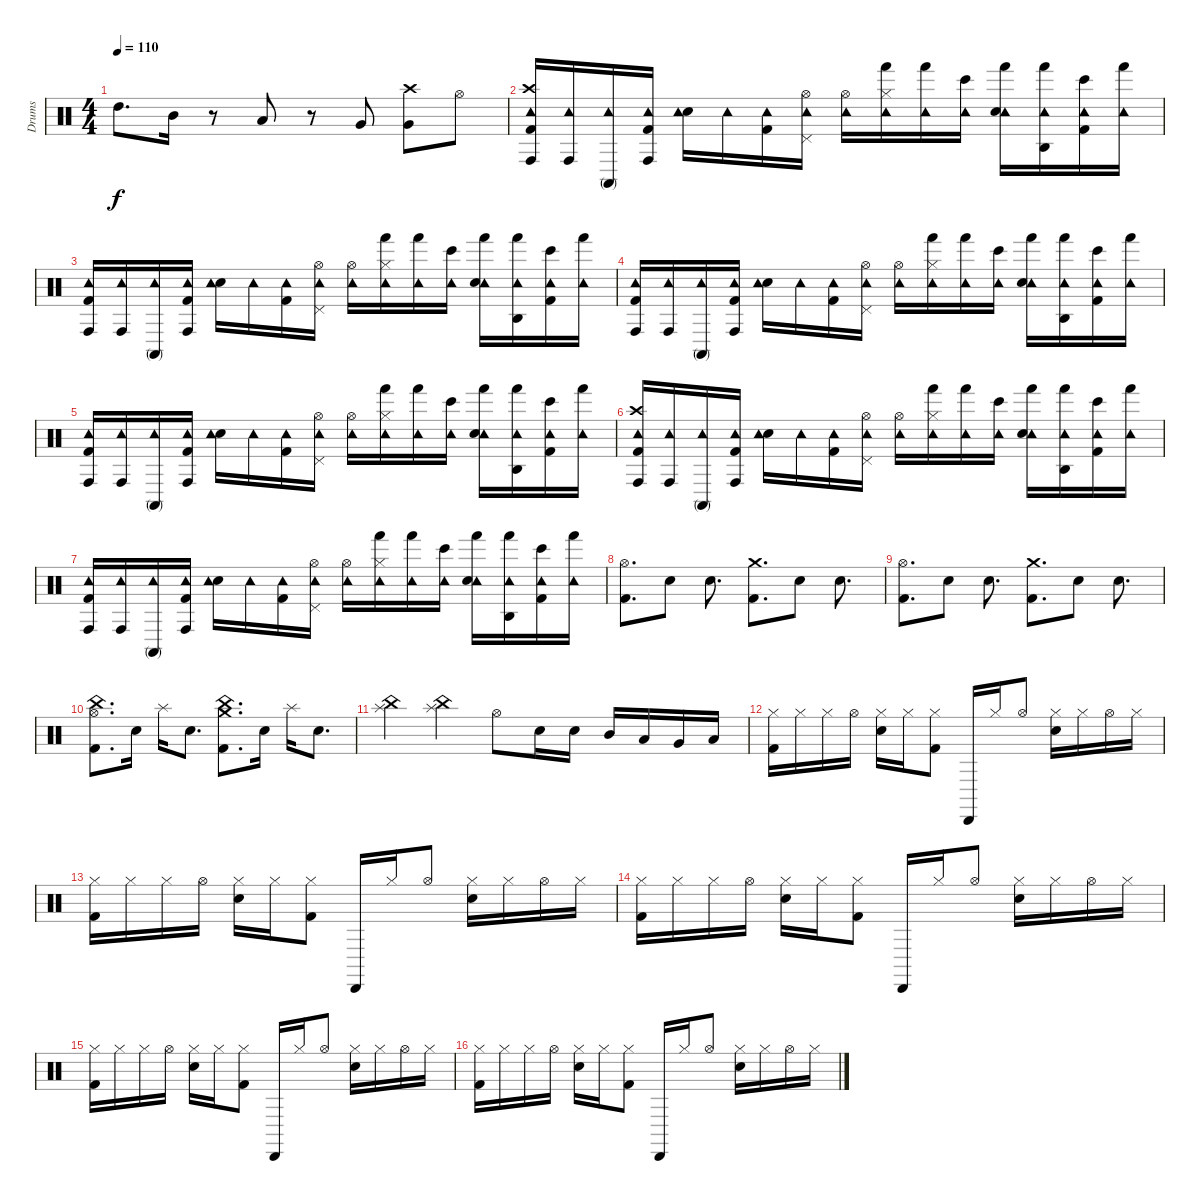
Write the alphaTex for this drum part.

\track ("Drums" "Drums") {instrument percussion}
\staff {score}
\articulation defaults
\ts (4 4)
\tempo 110
\clef neutral
\ks c "High Tom (hit)".8{d dy f} "Mid Tom (hit)".16
r.8 "Low Tom (hit)".8 r.8 "Very Low Tom (hit)".8 ("Very Low Tom (hit)" "Crash high (hit)").8 "Hi-Hat (open)".8 |
("Conga high (hit)" "Kick (hit) 2" "Crash high (hit)" "Tambourine (hit)").16 ("Conga high (hit)" "Tambourine (hit)").16 ("Conga high (mute)" "Tambourine (hit)").16 ("Conga high (hit)" "Kick (hit) 2" "Tambourine (hit)").16 ("Snare (hit) 2" "Tambourine (hit)").16 "Tambourine (hit)".16 ("Kick (hit) 2" "Tambourine (hit)").16 ("Tambourine (hit)" "Pedal Hi-Hat (hit)" "Hi-Hat (open)").16 ("Tambourine (hit)" "Hi-Hat (open)").16 ("Hand (hit)" "Tambourine (hit)" "Hi-Hat (closed)").16 ("Hand (hit)" "Tambourine (hit)").16 ("Bongo High (hit)" "Tambourine (hit)").16 ("Hand (hit)" "Tambourine (hit)" "Electric Snare (hit)").16 ("Hand (hit)" "Agogo high (hit)" "Tambourine (hit)").16 ("Bongo High (hit)" "Kick (hit) 2" "Tambourine (hit)").16 ("Hand (hit)" "Tambourine (hit)").16 |
("Conga high (hit)" "Kick (hit) 2" "Tambourine (hit)").16 ("Conga high (hit)" "Tambourine (hit)").16 ("Conga high (mute)" "Tambourine (hit)").16 ("Conga high (hit)" "Kick (hit) 2" "Tambourine (hit)").16 ("Snare (hit) 2" "Tambourine (hit)").16 "Tambourine (hit)".16 ("Kick (hit) 2" "Tambourine (hit)").16 ("Tambourine (hit)" "Pedal Hi-Hat (hit)" "Hi-Hat (open)").16 ("Tambourine (hit)" "Hi-Hat (open)").16 ("Hand (hit)" "Tambourine (hit)" "Hi-Hat (closed)").16 ("Hand (hit)" "Tambourine (hit)").16 ("Bongo High (hit)" "Tambourine (hit)").16 ("Hand (hit)" "Tambourine (hit)" "Electric Snare (hit)").16 ("Hand (hit)" "Agogo high (hit)" "Tambourine (hit)").16 ("Bongo High (hit)" "Kick (hit) 2" "Tambourine (hit)").16 ("Hand (hit)" "Tambourine (hit)").16 |
("Conga high (hit)" "Kick (hit) 2" "Tambourine (hit)").16 ("Conga high (hit)" "Tambourine (hit)").16 ("Conga high (mute)" "Tambourine (hit)").16 ("Conga high (hit)" "Kick (hit) 2" "Tambourine (hit)").16 ("Snare (hit) 2" "Tambourine (hit)").16 "Tambourine (hit)".16 ("Kick (hit) 2" "Tambourine (hit)").16 ("Tambourine (hit)" "Pedal Hi-Hat (hit)" "Hi-Hat (open)").16 ("Tambourine (hit)" "Hi-Hat (open)").16 ("Hand (hit)" "Tambourine (hit)" "Hi-Hat (closed)").16 ("Hand (hit)" "Tambourine (hit)").16 ("Bongo High (hit)" "Tambourine (hit)").16 ("Hand (hit)" "Tambourine (hit)" "Electric Snare (hit)").16 ("Hand (hit)" "Agogo high (hit)" "Tambourine (hit)").16 ("Bongo High (hit)" "Kick (hit) 2" "Tambourine (hit)").16 ("Hand (hit)" "Tambourine (hit)").16 |
("Conga high (hit)" "Kick (hit) 2" "Tambourine (hit)").16 ("Conga high (hit)" "Tambourine (hit)").16 ("Conga high (mute)" "Tambourine (hit)").16 ("Conga high (hit)" "Kick (hit) 2" "Tambourine (hit)").16 ("Snare (hit) 2" "Tambourine (hit)").16 "Tambourine (hit)".16 ("Kick (hit) 2" "Tambourine (hit)").16 ("Tambourine (hit)" "Pedal Hi-Hat (hit)" "Hi-Hat (open)").16 ("Tambourine (hit)" "Hi-Hat (open)").16 ("Hand (hit)" "Tambourine (hit)" "Hi-Hat (closed)").16 ("Hand (hit)" "Tambourine (hit)").16 ("Bongo High (hit)" "Tambourine (hit)").16 ("Hand (hit)" "Tambourine (hit)" "Electric Snare (hit)").16 ("Hand (hit)" "Agogo high (hit)" "Tambourine (hit)").16 ("Bongo High (hit)" "Kick (hit) 2" "Tambourine (hit)").16 ("Hand (hit)" "Tambourine (hit)").16 |
("Conga high (hit)" "Kick (hit) 2" "Crash high (hit)" "Tambourine (hit)").16 ("Conga high (hit)" "Tambourine (hit)").16 ("Conga high (mute)" "Tambourine (hit)").16 ("Conga high (hit)" "Kick (hit) 2" "Tambourine (hit)").16 ("Snare (hit) 2" "Tambourine (hit)").16 "Tambourine (hit)".16 ("Kick (hit) 2" "Tambourine (hit)").16 ("Tambourine (hit)" "Pedal Hi-Hat (hit)" "Hi-Hat (open)").16 ("Tambourine (hit)" "Hi-Hat (open)").16 ("Hand (hit)" "Tambourine (hit)" "Hi-Hat (closed)").16 ("Hand (hit)" "Tambourine (hit)").16 ("Bongo High (hit)" "Tambourine (hit)").16 ("Hand (hit)" "Tambourine (hit)" "Electric Snare (hit)").16 ("Hand (hit)" "Agogo high (hit)" "Tambourine (hit)").16 ("Bongo High (hit)" "Kick (hit) 2" "Tambourine (hit)").16 ("Hand (hit)" "Tambourine (hit)").16 |
("Conga high (hit)" "Kick (hit) 2" "Tambourine (hit)").16 ("Conga high (hit)" "Tambourine (hit)").16 ("Conga high (mute)" "Tambourine (hit)").16 ("Conga high (hit)" "Kick (hit) 2" "Tambourine (hit)").16 ("Snare (hit) 2" "Tambourine (hit)").16 "Tambourine (hit)".16 ("Kick (hit) 2" "Tambourine (hit)").16 ("Tambourine (hit)" "Pedal Hi-Hat (hit)" "Hi-Hat (open)").16 ("Tambourine (hit)" "Hi-Hat (open)").16 ("Hand (hit)" "Tambourine (hit)" "Hi-Hat (closed)").16 ("Hand (hit)" "Tambourine (hit)").16 ("Bongo High (hit)" "Tambourine (hit)").16 ("Hand (hit)" "Tambourine (hit)" "Electric Snare (hit)").16 ("Hand (hit)" "Agogo high (hit)" "Tambourine (hit)").16 ("Bongo High (hit)" "Kick (hit) 2" "Tambourine (hit)").16 ("Hand (hit)" "Tambourine (hit)").16 |
("Kick (hit) 2" "Hi-Hat (open)").8{d} "Snare (hit) 2".8 "Snare (hit) 2".8{d} ("Kick (hit) 2" "Crash medium (hit)").8{d} "Snare (hit) 2".8 "Snare (hit) 2".8{d} |
("Kick (hit) 2" "Hi-Hat (open)").8{d} "Snare (hit) 2".8 "Snare (hit) 2".8{d} ("Kick (hit) 2" "Crash medium (hit)").8{d} "Snare (hit) 2".8 "Snare (hit) 2".8{d} |
("China (hit)" "Kick (hit) 2" "Hi-Hat (open)").8{d} "Snare (hit) 2".16 "Splash (hit)".16 "Snare (hit) 2".8{d} ("China (hit)" "Kick (hit) 2" "Crash medium (hit)").8{d} "Snare (hit) 2".16 "Splash (hit)".16 "Snare (hit) 2".8{d} |
("China (hit)" "Splash (hit)").4 ("China (hit)" "Splash (hit)").4 "Hi-Hat (open)".8 "Snare (hit) 2".16 "Snare (hit) 2".16 "Mid Tom (hit)".16 "Low Tom (hit)".16 "Very Low Tom (hit)".16 "Low Floor Tom (hit)".16 |
("Kick (hit) 2" "Hi-Hat (closed)").16 "Hi-Hat (closed)".16 "Hi-Hat (closed)".16 "Hi-Hat (open)".16 ("Snare (hit) 2" "Hi-Hat (closed)").16 "Hi-Hat (closed)".16 ("Kick (hit) 2" "Hi-Hat (closed)").8 "Cabasa (hit)".16 "Hi-Hat (closed)".16 "Hi-Hat (open)".8 ("Snare (hit) 2" "Hi-Hat (closed)").16 "Hi-Hat (closed)".16 "Hi-Hat (open)".16 "Hi-Hat (closed)".16 |
("Kick (hit) 2" "Hi-Hat (closed)").16 "Hi-Hat (closed)".16 "Hi-Hat (closed)".16 "Hi-Hat (open)".16 ("Snare (hit) 2" "Hi-Hat (closed)").16 "Hi-Hat (closed)".16 ("Kick (hit) 2" "Hi-Hat (closed)").8 "Cabasa (hit)".16 "Hi-Hat (closed)".16 "Hi-Hat (open)".8 ("Snare (hit) 2" "Hi-Hat (closed)").16 "Hi-Hat (closed)".16 "Hi-Hat (open)".16 "Hi-Hat (closed)".16 |
("Kick (hit) 2" "Hi-Hat (closed)").16 "Hi-Hat (closed)".16 "Hi-Hat (closed)".16 "Hi-Hat (open)".16 ("Snare (hit) 2" "Hi-Hat (closed)").16 "Hi-Hat (closed)".16 ("Kick (hit) 2" "Hi-Hat (closed)").8 "Cabasa (hit)".16 "Hi-Hat (closed)".16 "Hi-Hat (open)".8 ("Snare (hit) 2" "Hi-Hat (closed)").16 "Hi-Hat (closed)".16 "Hi-Hat (open)".16 "Hi-Hat (closed)".16 |
("Kick (hit) 2" "Hi-Hat (closed)").16 "Hi-Hat (closed)".16 "Hi-Hat (closed)".16 "Hi-Hat (open)".16 ("Snare (hit) 2" "Hi-Hat (closed)").16 "Hi-Hat (closed)".16 ("Kick (hit) 2" "Hi-Hat (closed)").8 "Cabasa (hit)".16 "Hi-Hat (closed)".16 "Hi-Hat (open)".8 ("Snare (hit) 2" "Hi-Hat (closed)").16 "Hi-Hat (closed)".16 "Hi-Hat (open)".16 "Hi-Hat (closed)".16 |
("Kick (hit) 2" "Hi-Hat (closed)").16 "Hi-Hat (closed)".16 "Hi-Hat (closed)".16 "Hi-Hat (open)".16 ("Snare (hit) 2" "Hi-Hat (closed)").16 "Hi-Hat (closed)".16 ("Kick (hit) 2" "Hi-Hat (closed)").8 "Cabasa (hit)".16 "Hi-Hat (closed)".16 "Hi-Hat (open)".8 ("Snare (hit) 2" "Hi-Hat (closed)").16 "Hi-Hat (closed)".16 "Hi-Hat (open)".16 "Hi-Hat (closed)".16
